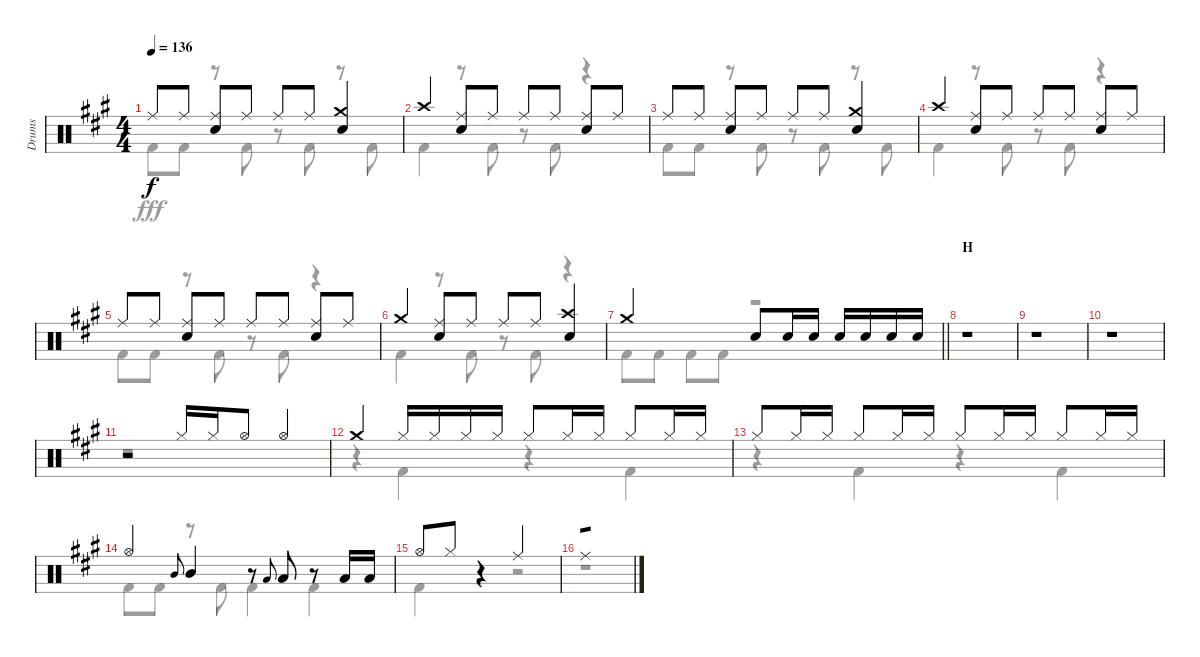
\track ("Drums" "Drums") {instrument percussion}
\staff {score}
\articulation defaults
\voice
\ts (4 4)
\tempo 136
\clef neutral
\ks a "Ride (middle)".8{dy f} "Ride (middle)".8
("Ride (middle)" "Snare (hit) 2").8 "Ride (middle)".8 "Ride (middle)".8 "Ride (middle)".8 ("Crash medium (hit)" "Snare (hit) 2").4 |
"Crash high (hit)".4 ("Ride (middle)" "Snare (hit) 2").8 "Ride (middle)".8 "Ride (middle)".8 "Ride (middle)".8 ("Ride (middle)" "Snare (hit) 2").8 "Ride (middle)".8 |
"Ride (middle)".8 "Ride (middle)".8 ("Ride (middle)" "Snare (hit) 2").8 "Ride (middle)".8 "Ride (middle)".8 "Ride (middle)".8 ("Crash medium (hit)" "Snare (hit) 2").4 |
"Crash high (hit)".4 ("Ride (middle)" "Snare (hit) 2").8 "Ride (middle)".8 "Ride (middle)".8 "Ride (middle)".8 ("Ride (middle)" "Snare (hit) 2").8 "Ride (middle)".8 |
"Ride (middle)".8 "Ride (middle)".8 ("Ride (middle)" "Snare (hit) 2").8 "Ride (middle)".8 "Ride (middle)".8 "Ride (middle)".8 ("Ride (middle)" "Snare (hit) 2").8 "Ride (middle)".8 |
"Crash medium (hit)".4 ("Ride (middle)" "Snare (hit) 2").8 "Ride (middle)".8 "Ride (middle)".8 "Ride (middle)".8 ("Crash high (hit)" "Snare (hit) 2").4 |
\barLineRight lightlight "Crash medium (hit)".2 "Snare (hit) 2".8 "Snare (hit) 2".16 "Snare (hit) 2".16 "Snare (hit) 2".16 "Snare (hit) 2".16 "Snare (hit) 2".16 "Snare (hit) 2".16
|
\section ("" "H")
r.1 |
r.1 |
r.1 |
r.2 "Hi-Hat (closed)".16 "Hi-Hat (closed)".16 "Hi-Hat (open)".8 "Hi-Hat (open)".4 |
"Crash medium (hit)".4 "Hi-Hat (closed)".16 "Hi-Hat (closed)".16 "Hi-Hat (closed)".16 "Hi-Hat (closed)".16 "Hi-Hat (closed)".8 "Hi-Hat (closed)".16 "Hi-Hat (closed)".16 "Hi-Hat (closed)".8 "Hi-Hat (closed)".16 "Hi-Hat (closed)".16 |
"Hi-Hat (closed)".8 "Hi-Hat (closed)".16 "Hi-Hat (closed)".16 "Hi-Hat (closed)".8 "Hi-Hat (closed)".16 "Hi-Hat (closed)".16 "Hi-Hat (closed)".8 "Hi-Hat (closed)".16 "Hi-Hat (closed)".16 "Hi-Hat (closed)".8 "Hi-Hat (closed)".16 "Hi-Hat (closed)".16 |
"Hi-Hat (open)".4 "Mid Tom (hit)".8{gr onbeat} "Mid Tom (hit)".4 r.8 "Low Tom (hit)".8{gr onbeat} "Low Tom (hit)".8 r.8 "Low Tom (hit)".16 "Low Tom (hit)".16 |
"Hi-Hat (open)".8 "Hi-Hat (closed)".8 r.4 "Ride (middle)".2 |
"Ride (middle)".1{tp 1}
\voice
\clef neutral
\ottava regular
\simile none
\ks a "Kick (hit) 2".8{dy fff} "Kick (hit) 2".8
r.8 "Kick (hit) 2".8 r.8 "Kick (hit) 2".8 r.8 "Kick (hit) 2".8 |
"Kick (hit) 2".4 r.8 "Kick (hit) 2".8 r.8 "Kick (hit) 2".8 r.4 |
"Kick (hit) 2".8 "Kick (hit) 2".8 r.8 "Kick (hit) 2".8 r.8 "Kick (hit) 2".8 r.8 "Kick (hit) 2".8 |
"Kick (hit) 2".4 r.8 "Kick (hit) 2".8 r.8 "Kick (hit) 2".8 r.4 |
"Kick (hit) 2".8 "Kick (hit) 2".8 r.8 "Kick (hit) 2".8 r.8 "Kick (hit) 2".8 r.4 |
"Kick (hit) 2".4 r.8 "Kick (hit) 2".8 r.8 "Kick (hit) 2".8 r.4 |
\barLineRight lightlight "Kick (hit) 2".8 "Kick (hit) 2".8 "Kick (hit) 2".8 "Kick (hit) 2".8
r.2 |
r.1 |
r.1 |
r.1 |
r.1 |
r.4 "Kick (hit) 2".4 r.4 "Kick (hit) 2".4 |
r.4 "Kick (hit) 2".4 r.4 "Kick (hit) 2".4 |
"Kick (hit) 2".8 "Kick (hit) 2".8 r.8 "Kick (hit) 2".8 "Kick (hit) 2".4 "Kick (hit) 2".4 |
"Kick (hit) 2".4 r.4 r.2 |
r.1
